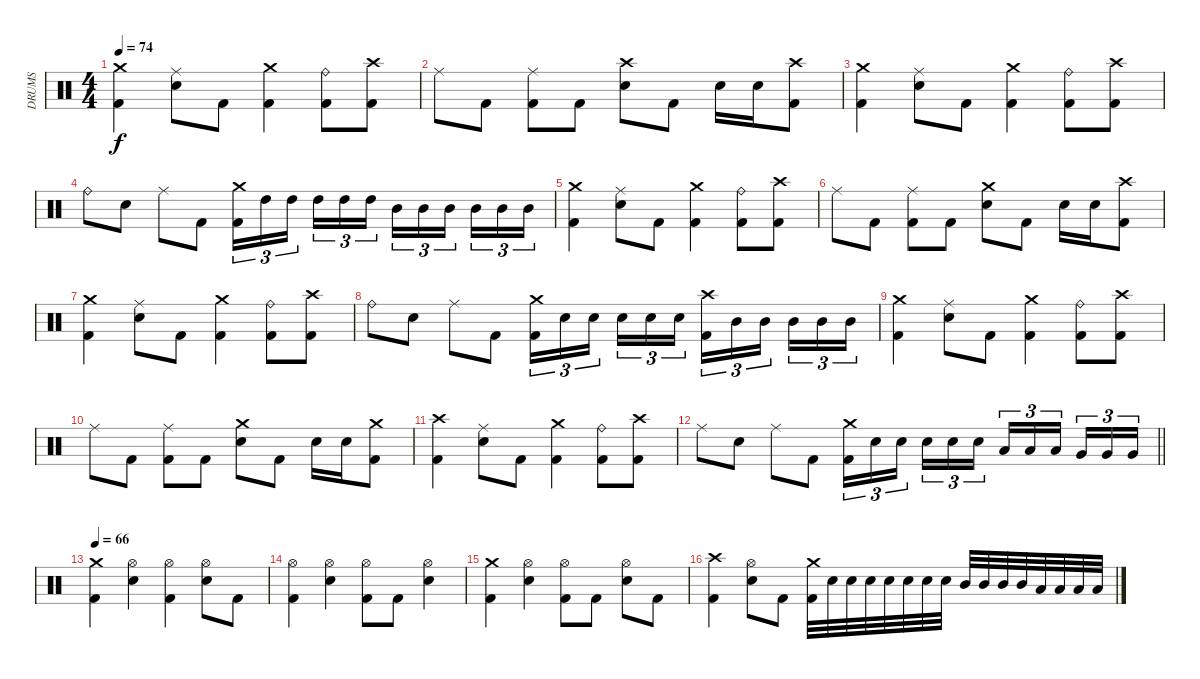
\track ("DRUMS" "DRUMS") {instrument percussion}
\staff {score}
\articulation defaults
\ts (4 4)
\tempo 74
\clef neutral
\ks c
("Crash medium (hit)" "Kick (hit) 2").4{dy f} ("Ride (middle)" "Snare (hit) 2").8 "Kick (hit) 2".8 ("Crash medium (hit)" "Kick (hit) 2").4 ("Ride (bell)" "Kick (hit) 2").8 ("Crash high (hit)" "Kick (hit) 2").8 |
"Ride (middle)".8 "Kick (hit) 2".8 ("Ride (middle)" "Kick (hit) 2").8 "Kick (hit) 2".8 ("Crash high (hit)" "Snare (hit) 2").8 "Kick (hit) 2".8 "Snare (hit) 2".16 "Snare (hit) 2".16 ("Crash high (hit)" "Kick (hit) 2").8 |
("Crash medium (hit)" "Kick (hit) 2").4 ("Ride (middle)" "Snare (hit) 2").8 "Kick (hit) 2".8 ("Crash medium (hit)" "Kick (hit) 2").4 ("Ride (bell)" "Kick (hit) 2").8 ("Crash high (hit)" "Kick (hit) 2").8 |
"Ride (bell)".8 "Snare (hit) 2".8 "Ride (middle)".8 "Kick (hit) 2".8 ("Crash medium (hit)" "Kick (hit) 2").16{tu (3 2)} "High Tom (hit)".16{tu (3 2)} "High Tom (hit)".16{tu (3 2) beam splitsecondary} "High Tom (hit)".16{tu (3 2)} "High Tom (hit)".16{tu (3 2)} "High Tom (hit)".16{tu (3 2)} "Mid Tom (hit)".16{tu (3 2)} "Mid Tom (hit)".16{tu (3 2)} "Mid Tom (hit)".16{tu (3 2) beam splitsecondary} "Mid Tom (hit)".16{tu (3 2)} "Mid Tom (hit)".16{tu (3 2)} "Mid Tom (hit)".16{tu (3 2)} |
("Crash medium (hit)" "Kick (hit) 2").4 ("Ride (middle)" "Snare (hit) 2").8 "Kick (hit) 2".8 ("Crash medium (hit)" "Kick (hit) 2").4 ("Ride (bell)" "Kick (hit) 2").8 ("Crash high (hit)" "Kick (hit) 2").8 |
"Ride (middle)".8 "Kick (hit) 2".8 ("Ride (middle)" "Kick (hit) 2").8 "Kick (hit) 2".8 ("Crash medium (hit)" "Snare (hit) 2").8 "Kick (hit) 2".8 "Snare (hit) 2".16 "Snare (hit) 2".16 ("Crash high (hit)" "Kick (hit) 2").8 |
("Crash medium (hit)" "Kick (hit) 2").4 ("Ride (middle)" "Snare (hit) 2").8 "Kick (hit) 2".8 ("Crash medium (hit)" "Kick (hit) 2").4 ("Ride (bell)" "Kick (hit) 2").8 ("Crash high (hit)" "Kick (hit) 2").8 |
"Ride (bell)".8 "Snare (hit) 2".8 "Ride (middle)".8 "Kick (hit) 2".8 ("Crash medium (hit)" "Kick (hit) 2").16{tu (3 2)} "Snare (hit) 2".16{tu (3 2)} "Snare (hit) 2".16{tu (3 2) beam splitsecondary} "Snare (hit) 2".16{tu (3 2)} "Snare (hit) 2".16{tu (3 2)} "Snare (hit) 2".16{tu (3 2)} ("Crash high (hit)" "Kick (hit) 2").16{tu (3 2)} "Mid Tom (hit)".16{tu (3 2)} "Mid Tom (hit)".16{tu (3 2) beam splitsecondary} "Mid Tom (hit)".16{tu (3 2)} "Mid Tom (hit)".16{tu (3 2)} "Mid Tom (hit)".16{tu (3 2)} |
("Crash medium (hit)" "Kick (hit) 2").4 ("Ride (middle)" "Snare (hit) 2").8 "Kick (hit) 2".8 ("Crash medium (hit)" "Kick (hit) 2").4 ("Ride (bell)" "Kick (hit) 2").8 ("Crash high (hit)" "Kick (hit) 2").8 |
"Ride (middle)".8 "Kick (hit) 2".8 ("Ride (middle)" "Kick (hit) 2").8 "Kick (hit) 2".8 ("Crash medium (hit)" "Snare (hit) 2").8 "Kick (hit) 2".8 "Snare (hit) 2".16 "Snare (hit) 2".16 ("Crash medium (hit)" "Kick (hit) 2").8 |
("Crash high (hit)" "Kick (hit) 2").4 ("Ride (middle)" "Snare (hit) 2").8 "Kick (hit) 2".8 ("Crash medium (hit)" "Kick (hit) 2").4 ("Ride (bell)" "Kick (hit) 2").8 ("Crash high (hit)" "Kick (hit) 2").8 |
\barLineRight lightlight "Ride (middle)".8 "Snare (hit) 2".8 "Ride (middle)".8 "Kick (hit) 2".8
("Crash medium (hit)" "Kick (hit) 2").16{tu (3 2)} "Snare (hit) 2".16{tu (3 2)} "Snare (hit) 2".16{tu (3 2) beam splitsecondary} "Snare (hit) 2".16{tu (3 2)} "Snare (hit) 2".16{tu (3 2)} "Snare (hit) 2".16{tu (3 2)} "Low Tom (hit)".16{tu (3 2)} "Low Tom (hit)".16{tu (3 2)} "Low Tom (hit)".16{tu (3 2) beam splitsecondary} "Very Low Tom (hit)".16{tu (3 2)} "Very Low Tom (hit)".16{tu (3 2)} "Very Low Tom (hit)".16{tu (3 2)} |
\tempo 66
("Crash medium (hit)" "Kick (hit) 2").4 ("Hi-Hat (open)" "Snare (hit) 2").4 ("Hi-Hat (open)" "Kick (hit) 2").4 ("Hi-Hat (open)" "Snare (hit) 2").8 "Kick (hit) 2".8 |
("Hi-Hat (open)" "Kick (hit) 2").4 ("Hi-Hat (open)" "Snare (hit) 2").4 ("Hi-Hat (open)" "Kick (hit) 2").8 "Kick (hit) 2".8 ("Hi-Hat (open)" "Snare (hit) 2").4 |
("Crash medium (hit)" "Kick (hit) 2").4 ("Hi-Hat (open)" "Snare (hit) 2").4 ("Hi-Hat (open)" "Kick (hit) 2").8 "Kick (hit) 2".8 ("Hi-Hat (open)" "Snare (hit) 2").8 "Kick (hit) 2".8 |
("Crash high (hit)" "Kick (hit) 2").4 ("Hi-Hat (open)" "Snare (hit) 2").8 "Kick (hit) 2".8 ("Crash medium (hit)" "Kick (hit) 2").32 "Snare (hit) 2".32 "Snare (hit) 2".32 "Snare (hit) 2".32 "Snare (hit) 2".32 "Snare (hit) 2".32 "Snare (hit) 2".32 "Snare (hit) 2".32 "Mid Tom (hit)".32 "Mid Tom (hit)".32 "Mid Tom (hit)".32 "Mid Tom (hit)".32 "Low Tom (hit)".32 "Low Tom (hit)".32 "Low Tom (hit)".32 "Low Tom (hit)".32
